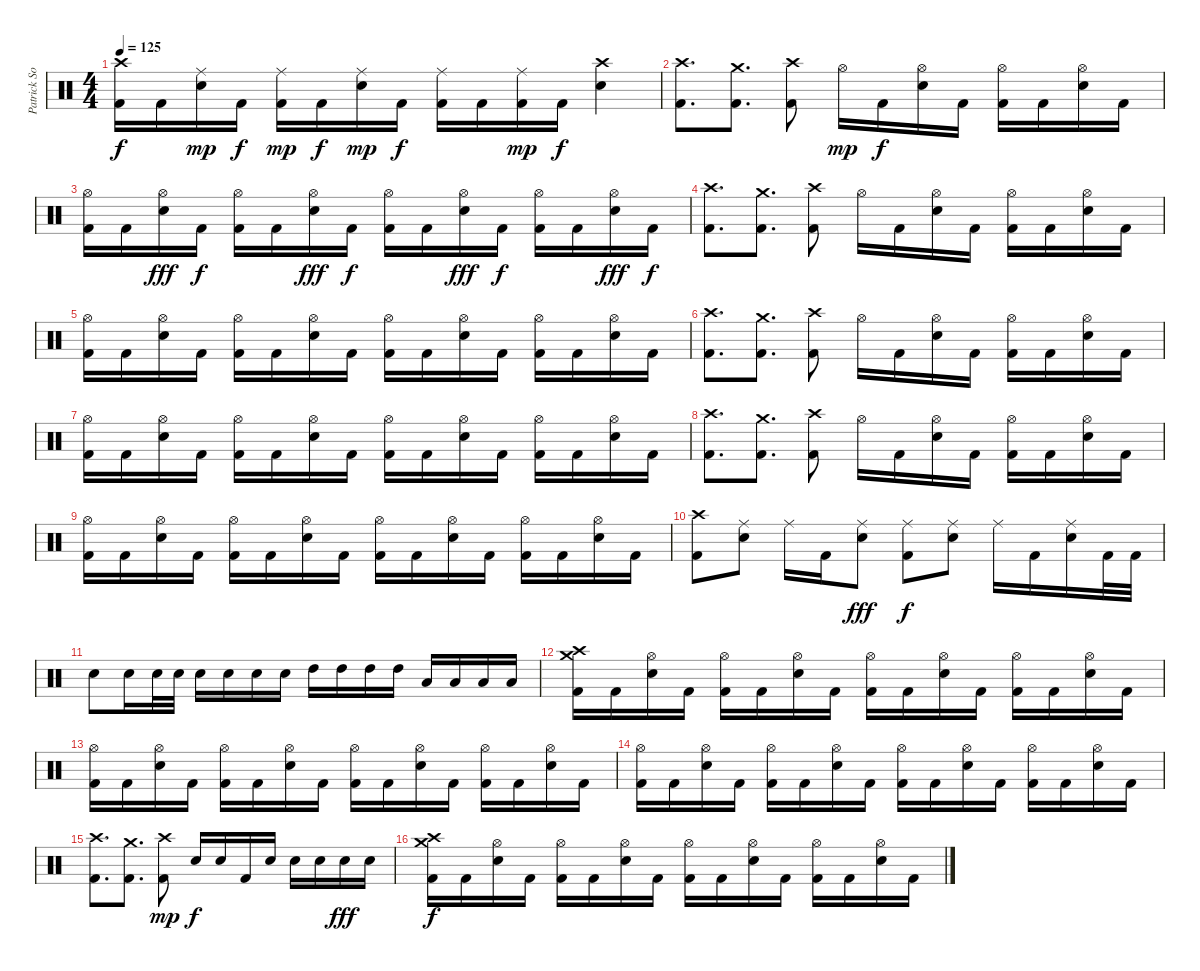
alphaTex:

\track ("Patrick Soria" "Patrick So") {instrument percussion}
\staff {score}
\articulation defaults
\ts (4 4)
\tempo 125
\clef neutral
\ks c
("Crash high (hit)" "Kick (hit) 2").16{dy f} "Kick (hit) 2".16 ("Ride (middle)" "Snare (hit) 2").16{dy mp} "Kick (hit) 2".16{dy f} ("Ride (middle)" "Kick (hit) 2").16{dy mp} "Kick (hit) 2".16{dy f} ("Ride (middle)" "Snare (hit) 2").16{dy mp} "Kick (hit) 2".16{dy f} ("Ride (middle)" "Kick (hit) 2").16 "Kick (hit) 2".16 ("Ride (middle)" "Kick (hit) 2").16{dy mp} "Kick (hit) 2".16{dy f} ("Crash high (hit)" "Snare (hit) 2").4 |
("Crash high (hit)" "Kick (hit) 2").8{d} ("Crash medium (hit)" "Kick (hit) 2").8{d} ("Crash high (hit)" "Kick (hit) 2").8 "Hi-Hat (open)".16{dy mp} "Kick (hit) 2".16{dy f} ("Hi-Hat (open)" "Snare (hit) 2").16 "Kick (hit) 2".16 ("Hi-Hat (open)" "Kick (hit) 2").16 "Kick (hit) 2".16 ("Hi-Hat (open)" "Snare (hit) 2").16 "Kick (hit) 2".16 |
("Hi-Hat (open)" "Kick (hit) 2").16 "Kick (hit) 2".16 ("Hi-Hat (open)" "Snare (hit) 2").16{dy fff} "Kick (hit) 2".16{dy f} ("Hi-Hat (open)" "Kick (hit) 2").16 "Kick (hit) 2".16 ("Hi-Hat (open)" "Snare (hit) 2").16{dy fff} "Kick (hit) 2".16{dy f} ("Hi-Hat (open)" "Kick (hit) 2").16 "Kick (hit) 2".16 ("Hi-Hat (open)" "Snare (hit) 2").16{dy fff} "Kick (hit) 2".16{dy f} ("Hi-Hat (open)" "Kick (hit) 2").16 "Kick (hit) 2".16 ("Hi-Hat (open)" "Snare (hit) 2").16{dy fff} "Kick (hit) 2".16{dy f} |
("Crash high (hit)" "Kick (hit) 2").8{d} ("Crash medium (hit)" "Kick (hit) 2").8{d} ("Crash high (hit)" "Kick (hit) 2").8 "Hi-Hat (open)".16 "Kick (hit) 2".16 ("Hi-Hat (open)" "Snare (hit) 2").16 "Kick (hit) 2".16 ("Hi-Hat (open)" "Kick (hit) 2").16 "Kick (hit) 2".16 ("Hi-Hat (open)" "Snare (hit) 2").16 "Kick (hit) 2".16 |
("Hi-Hat (open)" "Kick (hit) 2").16 "Kick (hit) 2".16 ("Hi-Hat (open)" "Snare (hit) 2").16 "Kick (hit) 2".16 ("Hi-Hat (open)" "Kick (hit) 2").16 "Kick (hit) 2".16 ("Hi-Hat (open)" "Snare (hit) 2").16 "Kick (hit) 2".16 ("Hi-Hat (open)" "Kick (hit) 2").16 "Kick (hit) 2".16 ("Hi-Hat (open)" "Snare (hit) 2").16 "Kick (hit) 2".16 ("Hi-Hat (open)" "Kick (hit) 2").16 "Kick (hit) 2".16 ("Hi-Hat (open)" "Snare (hit) 2").16 "Kick (hit) 2".16 |
("Crash high (hit)" "Kick (hit) 2").8{d} ("Crash medium (hit)" "Kick (hit) 2").8{d} ("Crash high (hit)" "Kick (hit) 2").8 "Hi-Hat (open)".16 "Kick (hit) 2".16 ("Hi-Hat (open)" "Snare (hit) 2").16 "Kick (hit) 2".16 ("Hi-Hat (open)" "Kick (hit) 2").16 "Kick (hit) 2".16 ("Hi-Hat (open)" "Snare (hit) 2").16 "Kick (hit) 2".16 |
("Hi-Hat (open)" "Kick (hit) 2").16 "Kick (hit) 2".16 ("Hi-Hat (open)" "Snare (hit) 2").16 "Kick (hit) 2".16 ("Hi-Hat (open)" "Kick (hit) 2").16 "Kick (hit) 2".16 ("Hi-Hat (open)" "Snare (hit) 2").16 "Kick (hit) 2".16 ("Hi-Hat (open)" "Kick (hit) 2").16 "Kick (hit) 2".16 ("Hi-Hat (open)" "Snare (hit) 2").16 "Kick (hit) 2".16 ("Hi-Hat (open)" "Kick (hit) 2").16 "Kick (hit) 2".16 ("Hi-Hat (open)" "Snare (hit) 2").16 "Kick (hit) 2".16 |
("Crash high (hit)" "Kick (hit) 2").8{d} ("Crash medium (hit)" "Kick (hit) 2").8{d} ("Crash high (hit)" "Kick (hit) 2").8 "Hi-Hat (open)".16 "Kick (hit) 2".16 ("Hi-Hat (open)" "Snare (hit) 2").16 "Kick (hit) 2".16 ("Hi-Hat (open)" "Kick (hit) 2").16 "Kick (hit) 2".16 ("Hi-Hat (open)" "Snare (hit) 2").16 "Kick (hit) 2".16 |
("Hi-Hat (open)" "Kick (hit) 2").16 "Kick (hit) 2".16 ("Hi-Hat (open)" "Snare (hit) 2").16 "Kick (hit) 2".16 ("Hi-Hat (open)" "Kick (hit) 2").16 "Kick (hit) 2".16 ("Hi-Hat (open)" "Snare (hit) 2").16 "Kick (hit) 2".16 ("Hi-Hat (open)" "Kick (hit) 2").16 "Kick (hit) 2".16 ("Hi-Hat (open)" "Snare (hit) 2").16 "Kick (hit) 2".16 ("Hi-Hat (open)" "Kick (hit) 2").16 "Kick (hit) 2".16 ("Hi-Hat (open)" "Snare (hit) 2").16 "Kick (hit) 2".16 |
("Crash high (hit)" "Kick (hit) 2").8 ("Ride (middle)" "Snare (hit) 2").8 "Ride (middle)".16 "Kick (hit) 2".16 ("Ride (middle)" "Snare (hit) 2").8{dy fff} ("Ride (middle)" "Kick (hit) 2").8{dy f} ("Ride (middle)" "Snare (hit) 2").8 "Ride (middle)".16 "Kick (hit) 2".16 ("Ride (middle)" "Snare (hit) 2").16 "Kick (hit) 2".32 "Kick (hit) 2".32 |
"Snare (hit) 2".8 "Snare (hit) 2".16 "Snare (hit) 2".32 "Snare (hit) 2".32 "Snare (hit) 2".16 "Snare (hit) 2".16 "Snare (hit) 2".16 "Snare (hit) 2".16 "High Tom (hit)".16 "High Tom (hit)".16 "High Tom (hit)".16 "High Tom (hit)".16 "Low Tom (hit)".16 "Low Tom (hit)".16 "Low Floor Tom (hit)".16 "Low Floor Tom (hit)".16 |
("Crash high (hit)" "Crash medium (hit)" "Kick (hit) 2").16 "Kick (hit) 2".16 ("Hi-Hat (open)" "Snare (hit) 2").16 "Kick (hit) 2".16 ("Hi-Hat (open)" "Kick (hit) 2").16 "Kick (hit) 2".16 ("Hi-Hat (open)" "Snare (hit) 2").16 "Kick (hit) 2".16 ("Hi-Hat (open)" "Kick (hit) 2").16 "Kick (hit) 2".16 ("Hi-Hat (open)" "Snare (hit) 2").16 "Kick (hit) 2".16 ("Hi-Hat (open)" "Kick (hit) 2").16 "Kick (hit) 2".16 ("Hi-Hat (open)" "Snare (hit) 2").16 "Kick (hit) 2".16 |
("Hi-Hat (open)" "Kick (hit) 2").16 "Kick (hit) 2".16 ("Hi-Hat (open)" "Snare (hit) 2").16 "Kick (hit) 2".16 ("Hi-Hat (open)" "Kick (hit) 2").16 "Kick (hit) 2".16 ("Hi-Hat (open)" "Snare (hit) 2").16 "Kick (hit) 2".16 ("Hi-Hat (open)" "Kick (hit) 2").16 "Kick (hit) 2".16 ("Hi-Hat (open)" "Snare (hit) 2").16 "Kick (hit) 2".16 ("Hi-Hat (open)" "Kick (hit) 2").16 "Kick (hit) 2".16 ("Hi-Hat (open)" "Snare (hit) 2").16 "Kick (hit) 2".16 |
("Hi-Hat (open)" "Kick (hit) 2").16 "Kick (hit) 2".16 ("Hi-Hat (open)" "Snare (hit) 2").16 "Kick (hit) 2".16 ("Hi-Hat (open)" "Kick (hit) 2").16 "Kick (hit) 2".16 ("Hi-Hat (open)" "Snare (hit) 2").16 "Kick (hit) 2".16 ("Hi-Hat (open)" "Kick (hit) 2").16 "Kick (hit) 2".16 ("Hi-Hat (open)" "Snare (hit) 2").16 "Kick (hit) 2".16 ("Hi-Hat (open)" "Kick (hit) 2").16 "Kick (hit) 2".16 ("Hi-Hat (open)" "Snare (hit) 2").16 "Kick (hit) 2".16 |
("Crash high (hit)" "Kick (hit) 2").8{d} ("Crash medium (hit)" "Kick (hit) 2").8{d} ("Crash high (hit)" "Kick (hit) 2").8{dy mp} "Snare (hit) 2".16{dy f} "Snare (hit) 2".16 "Kick (hit) 2".16 "Snare (hit) 2".16 "Snare (hit) 2".16 "Snare (hit) 2".16 "Snare (hit) 2".16{dy fff} "Snare (hit) 2".16 |
("Crash high (hit)" "Crash medium (hit)" "Kick (hit) 2").16{dy f} "Kick (hit) 2".16 ("Hi-Hat (open)" "Snare (hit) 2").16 "Kick (hit) 2".16 ("Hi-Hat (open)" "Kick (hit) 2").16 "Kick (hit) 2".16 ("Hi-Hat (open)" "Snare (hit) 2").16 "Kick (hit) 2".16 ("Hi-Hat (open)" "Kick (hit) 2").16 "Kick (hit) 2".16 ("Hi-Hat (open)" "Snare (hit) 2").16 "Kick (hit) 2".16 ("Hi-Hat (open)" "Kick (hit) 2").16 "Kick (hit) 2".16 ("Hi-Hat (open)" "Snare (hit) 2").16 "Kick (hit) 2".16
